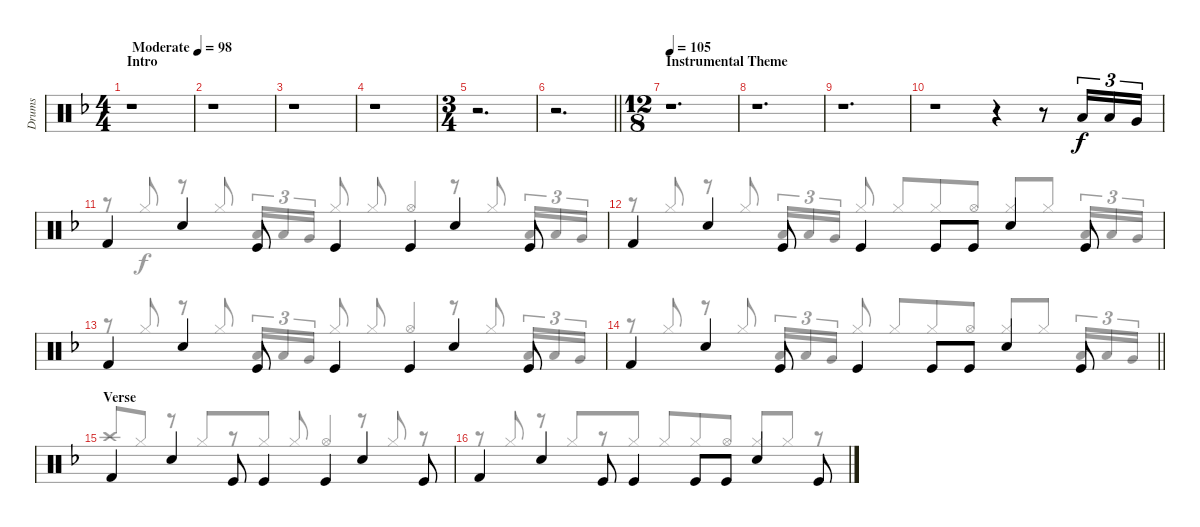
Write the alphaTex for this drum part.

\track ("Drums" "Drums") {instrument percussion}
\staff {score}
\articulation defaults
\voice
\ts (4 4)
\section ("" "Intro")
\tempo (98 "Moderate")
\clef neutral
\ks dminor
r.1{dy f} |
r.1 |
r.1 |
r.1 |
\ts (3 4)
r.2{d} |
\barLineRight lightlight
r.2{d} |
\ts (12 8)
\section ("" "Instrumental Theme")
\tempo 105
r.1{d} |
r.1{d} |
r.1{d} |
r.1 r.4 r.8 "Low Tom (hit)".16{tu (3 2)} "Low Tom (hit)".16{tu (3 2)} "Very Low Tom (hit)".16{tu (3 2)} |
"Kick (hit) 2".4 "Electric Snare (hit)".4 "Kick (hit)".8 "Kick (hit)".4 "Kick (hit)".4 "Electric Snare (hit)".4 "Kick (hit)".8 |
"Kick (hit) 2".4 "Electric Snare (hit)".4 "Kick (hit)".8 "Kick (hit)".4 "Kick (hit)".8 "Kick (hit)".8 "Electric Snare (hit)".4 "Kick (hit)".8 |
"Kick (hit) 2".4 "Electric Snare (hit)".4 "Kick (hit)".8 "Kick (hit)".4 "Kick (hit)".4 "Electric Snare (hit)".4 "Kick (hit)".8 |
\barLineRight lightlight "Kick (hit) 2".4 "Electric Snare (hit)".4 "Kick (hit)".8 "Kick (hit)".4 "Kick (hit)".8 "Kick (hit)".8 "Electric Snare (hit)".4 "Kick (hit)".8
|
\section ("" "Verse")
"Kick (hit) 2".4 "Snare (hit) 2".4 "Kick (hit)".8 "Kick (hit)".4 "Kick (hit)".4 "Snare (hit) 2".4 "Kick (hit)".8 |
"Kick (hit) 2".4 "Snare (hit) 2".4 "Kick (hit)".8 "Kick (hit)".4 "Kick (hit)".8 "Kick (hit)".8 "Snare (hit) 2".4 "Kick (hit)".8
\voice
\clef neutral
\ottava regular
\simile none
\ks dminor
|
|
|
|
|
\barLineRight lightlight
|
|
|
|
|
r.8 "Hi-Hat (closed)".8{beam Up} r.8 "Hi-Hat (closed)".8{beam Up} "Low Tom (hit)".16{tu (3 2) beam Up} "Low Tom (hit)".16{tu (3 2) beam Up} "Very Low Tom (hit)".16{tu (3 2) beam Up} "Hi-Hat (closed)".8{beam Up} "Hi-Hat (closed)".8{beam Up} "Hi-Hat (open)".4{beam Up} r.8 "Hi-Hat (closed)".8{beam Up} "Low Tom (hit)".16{tu (3 2) beam Up} "Low Tom (hit)".16{tu (3 2) beam Up} "Very Low Tom (hit)".16{tu (3 2) beam Up} |
r.8 "Hi-Hat (closed)".8{beam Up} r.8 "Hi-Hat (closed)".8{beam Up} "Low Tom (hit)".16{tu (3 2) beam Up} "Low Tom (hit)".16{tu (3 2) beam Up} "Very Low Tom (hit)".16{tu (3 2) beam Up} "Hi-Hat (closed)".8{beam Up} "Hi-Hat (closed)".8{beam Up} "Hi-Hat (closed)".8{beam Up} "Hi-Hat (open)".8{beam Up} "Hi-Hat (closed)".8{beam Up} "Hi-Hat (closed)".8{beam Up} "Low Tom (hit)".16{tu (3 2) beam Up} "Low Tom (hit)".16{tu (3 2) beam Up} "Very Low Tom (hit)".16{tu (3 2) beam Up} |
r.8 "Hi-Hat (closed)".8{beam Up} r.8 "Hi-Hat (closed)".8{beam Up} "Low Tom (hit)".16{tu (3 2) beam Up} "Low Tom (hit)".16{tu (3 2) beam Up} "Very Low Tom (hit)".16{tu (3 2) beam Up} "Hi-Hat (closed)".8{beam Up} "Hi-Hat (closed)".8{beam Up} "Hi-Hat (open)".4{beam Up} r.8 "Hi-Hat (closed)".8{beam Up} "Low Tom (hit)".16{tu (3 2) beam Up} "Low Tom (hit)".16{tu (3 2) beam Up} "Very Low Tom (hit)".16{tu (3 2) beam Up} |
\barLineRight lightlight
r.8 "Hi-Hat (closed)".8{beam Up} r.8 "Hi-Hat (closed)".8{beam Up} "Low Tom (hit)".16{tu (3 2) beam Up} "Low Tom (hit)".16{tu (3 2) beam Up} "Very Low Tom (hit)".16{tu (3 2) beam Up} "Hi-Hat (closed)".8{beam Up} "Hi-Hat (closed)".8{beam Up} "Hi-Hat (closed)".8{beam Up} "Hi-Hat (open)".8{beam Up} "Hi-Hat (closed)".8{beam Up} "Hi-Hat (closed)".8{beam Up} "Low Tom (hit)".16{tu (3 2) beam Up} "Low Tom (hit)".16{tu (3 2) beam Up} "Very Low Tom (hit)".16{tu (3 2) beam Up} |
"Crash high (hit)".8{beam Up} "Hi-Hat (closed)".8{beam Up} r.8 "Hi-Hat (closed)".8{beam Up} r.8{beam Up} "Hi-Hat (closed)".8{beam Up} "Hi-Hat (closed)".8{beam Up} "Hi-Hat (open)".4{beam Up} r.8 "Hi-Hat (closed)".8{beam Up} r.8 |
r.8 "Hi-Hat (closed)".8{beam Up} r.8 "Hi-Hat (closed)".8{beam Up} r.8{beam Up} "Hi-Hat (closed)".8{beam Up} "Hi-Hat (closed)".8{beam Up} "Hi-Hat (closed)".8{beam Up} "Hi-Hat (open)".8{beam Up} "Hi-Hat (closed)".8{beam Up} "Hi-Hat (closed)".8{beam Up} r.8{beam Up}
